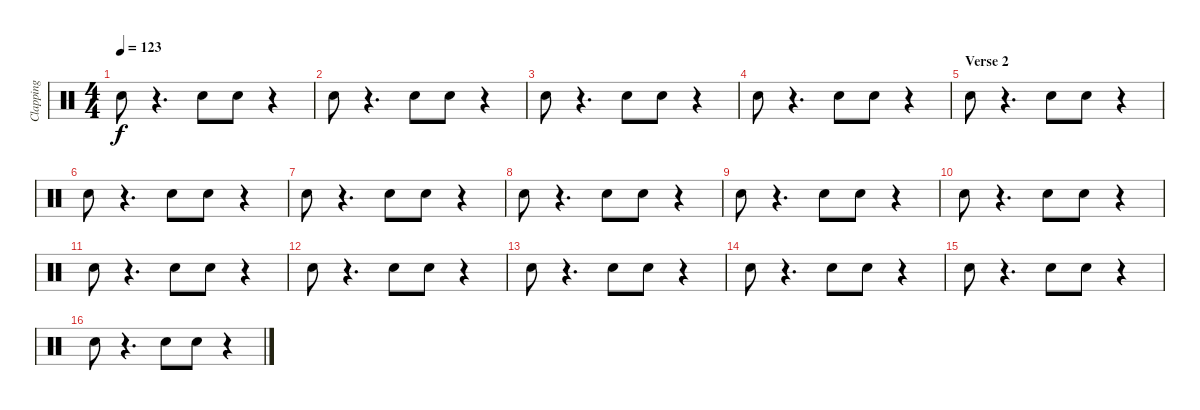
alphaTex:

\track ("Clapping" "Clapping") {instrument percussion}
\staff {score}
\articulation defaults
\ts (4 4)
\tempo 123
\clef neutral
\ks c "Hand Clap (hit)".8{dy f}
r.4{d} "Hand Clap (hit)".8 "Hand Clap (hit)".8 r.4 |
"Hand Clap (hit)".8 r.4{d} "Hand Clap (hit)".8 "Hand Clap (hit)".8 r.4 |
"Hand Clap (hit)".8 r.4{d} "Hand Clap (hit)".8 "Hand Clap (hit)".8 r.4 |
"Hand Clap (hit)".8 r.4{d} "Hand Clap (hit)".8 "Hand Clap (hit)".8 r.4 |
\section ("" "Verse 2")
"Hand Clap (hit)".8 r.4{d} "Hand Clap (hit)".8 "Hand Clap (hit)".8 r.4 |
"Hand Clap (hit)".8 r.4{d} "Hand Clap (hit)".8 "Hand Clap (hit)".8 r.4 |
"Hand Clap (hit)".8 r.4{d} "Hand Clap (hit)".8 "Hand Clap (hit)".8 r.4 |
"Hand Clap (hit)".8 r.4{d} "Hand Clap (hit)".8 "Hand Clap (hit)".8 r.4 |
"Hand Clap (hit)".8 r.4{d} "Hand Clap (hit)".8 "Hand Clap (hit)".8 r.4 |
"Hand Clap (hit)".8 r.4{d} "Hand Clap (hit)".8 "Hand Clap (hit)".8 r.4 |
"Hand Clap (hit)".8 r.4{d} "Hand Clap (hit)".8 "Hand Clap (hit)".8 r.4 |
"Hand Clap (hit)".8 r.4{d} "Hand Clap (hit)".8 "Hand Clap (hit)".8 r.4 |
"Hand Clap (hit)".8 r.4{d} "Hand Clap (hit)".8 "Hand Clap (hit)".8 r.4 |
"Hand Clap (hit)".8 r.4{d} "Hand Clap (hit)".8 "Hand Clap (hit)".8 r.4 |
"Hand Clap (hit)".8 r.4{d} "Hand Clap (hit)".8 "Hand Clap (hit)".8 r.4 |
"Hand Clap (hit)".8 r.4{d} "Hand Clap (hit)".8 "Hand Clap (hit)".8 r.4
